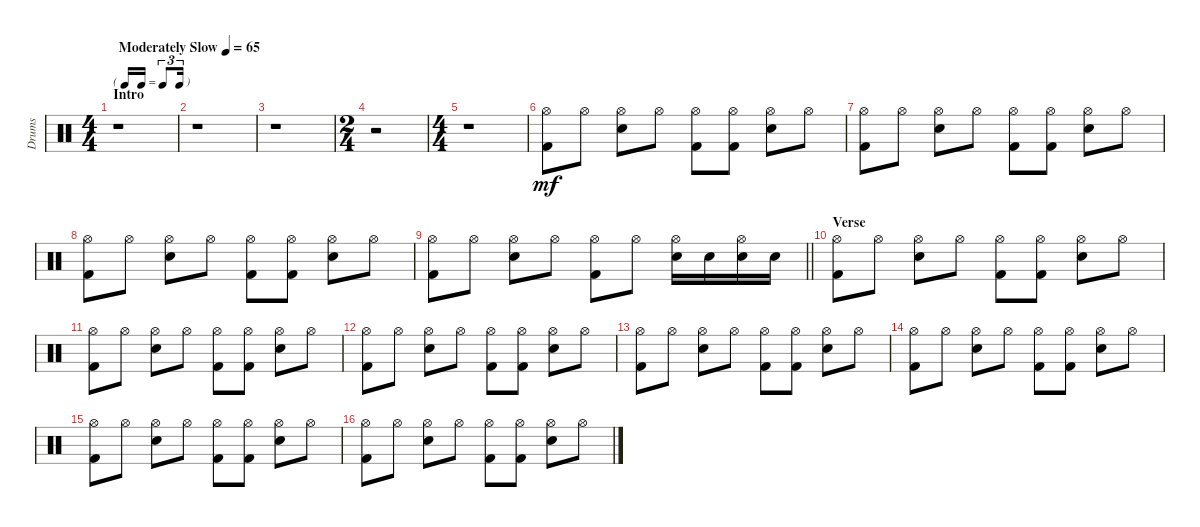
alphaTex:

\track ("Drums" "Drums") {instrument percussion}
\staff {score}
\articulation defaults
\ts (4 4)
\tf triplet16th
\section ("" "Intro")
\tempo (65 "Moderately Slow")
\clef neutral
\ks c
r.1{dy mf} |
r.1 |
r.1 |
\ts (2 4)
r.2 |
\ts (4 4)
r.1 |
("Hi-Hat (open)" "Kick (hit) 2").8 "Hi-Hat (open)".8 ("Hi-Hat (open)" "Snare (hit) 2").8 "Hi-Hat (open)".8 ("Hi-Hat (open)" "Kick (hit) 2").8 ("Hi-Hat (open)" "Kick (hit) 2").8 ("Hi-Hat (open)" "Snare (hit) 2").8 "Hi-Hat (open)".8 |
("Hi-Hat (open)" "Kick (hit) 2").8 "Hi-Hat (open)".8 ("Hi-Hat (open)" "Snare (hit) 2").8 "Hi-Hat (open)".8 ("Hi-Hat (open)" "Kick (hit) 2").8 ("Hi-Hat (open)" "Kick (hit) 2").8 ("Hi-Hat (open)" "Snare (hit) 2").8 "Hi-Hat (open)".8 |
("Hi-Hat (open)" "Kick (hit) 2").8 "Hi-Hat (open)".8 ("Hi-Hat (open)" "Snare (hit) 2").8 "Hi-Hat (open)".8 ("Hi-Hat (open)" "Kick (hit) 2").8 ("Hi-Hat (open)" "Kick (hit) 2").8 ("Hi-Hat (open)" "Snare (hit) 2").8 "Hi-Hat (open)".8 |
\barLineRight lightlight
("Hi-Hat (open)" "Kick (hit) 2").8 "Hi-Hat (open)".8 ("Hi-Hat (open)" "Snare (hit) 2").8 "Hi-Hat (open)".8 ("Hi-Hat (open)" "Kick (hit) 2").8 "Hi-Hat (open)".8 ("Hi-Hat (open)" "Snare (hit) 2").16 "Snare (hit) 2".16 ("Hi-Hat (open)" "Snare (hit) 2").16 "Snare (hit) 2".16 |
\section ("" "Verse")
("Hi-Hat (open)" "Kick (hit) 2").8 "Hi-Hat (open)".8 ("Hi-Hat (open)" "Snare (hit) 2").8 "Hi-Hat (open)".8 ("Hi-Hat (open)" "Kick (hit) 2").8 ("Hi-Hat (open)" "Kick (hit) 2").8 ("Hi-Hat (open)" "Snare (hit) 2").8 "Hi-Hat (open)".8 |
("Hi-Hat (open)" "Kick (hit) 2").8 "Hi-Hat (open)".8 ("Hi-Hat (open)" "Snare (hit) 2").8 "Hi-Hat (open)".8 ("Hi-Hat (open)" "Kick (hit) 2").8 ("Hi-Hat (open)" "Kick (hit) 2").8 ("Hi-Hat (open)" "Snare (hit) 2").8 "Hi-Hat (open)".8 |
("Hi-Hat (open)" "Kick (hit) 2").8 "Hi-Hat (open)".8 ("Hi-Hat (open)" "Snare (hit) 2").8 "Hi-Hat (open)".8 ("Hi-Hat (open)" "Kick (hit) 2").8 ("Hi-Hat (open)" "Kick (hit) 2").8 ("Hi-Hat (open)" "Snare (hit) 2").8 "Hi-Hat (open)".8 |
("Hi-Hat (open)" "Kick (hit) 2").8 "Hi-Hat (open)".8 ("Hi-Hat (open)" "Snare (hit) 2").8 "Hi-Hat (open)".8 ("Hi-Hat (open)" "Kick (hit) 2").8 ("Hi-Hat (open)" "Kick (hit) 2").8 ("Hi-Hat (open)" "Snare (hit) 2").8 "Hi-Hat (open)".8 |
("Hi-Hat (open)" "Kick (hit) 2").8 "Hi-Hat (open)".8 ("Hi-Hat (open)" "Snare (hit) 2").8 "Hi-Hat (open)".8 ("Hi-Hat (open)" "Kick (hit) 2").8 ("Hi-Hat (open)" "Kick (hit) 2").8 ("Hi-Hat (open)" "Snare (hit) 2").8 "Hi-Hat (open)".8 |
("Hi-Hat (open)" "Kick (hit) 2").8 "Hi-Hat (open)".8 ("Hi-Hat (open)" "Snare (hit) 2").8 "Hi-Hat (open)".8 ("Hi-Hat (open)" "Kick (hit) 2").8 ("Hi-Hat (open)" "Kick (hit) 2").8 ("Hi-Hat (open)" "Snare (hit) 2").8 "Hi-Hat (open)".8 |
("Hi-Hat (open)" "Kick (hit) 2").8 "Hi-Hat (open)".8 ("Hi-Hat (open)" "Snare (hit) 2").8 "Hi-Hat (open)".8 ("Hi-Hat (open)" "Kick (hit) 2").8 ("Hi-Hat (open)" "Kick (hit) 2").8 ("Hi-Hat (open)" "Snare (hit) 2").8 "Hi-Hat (open)".8
